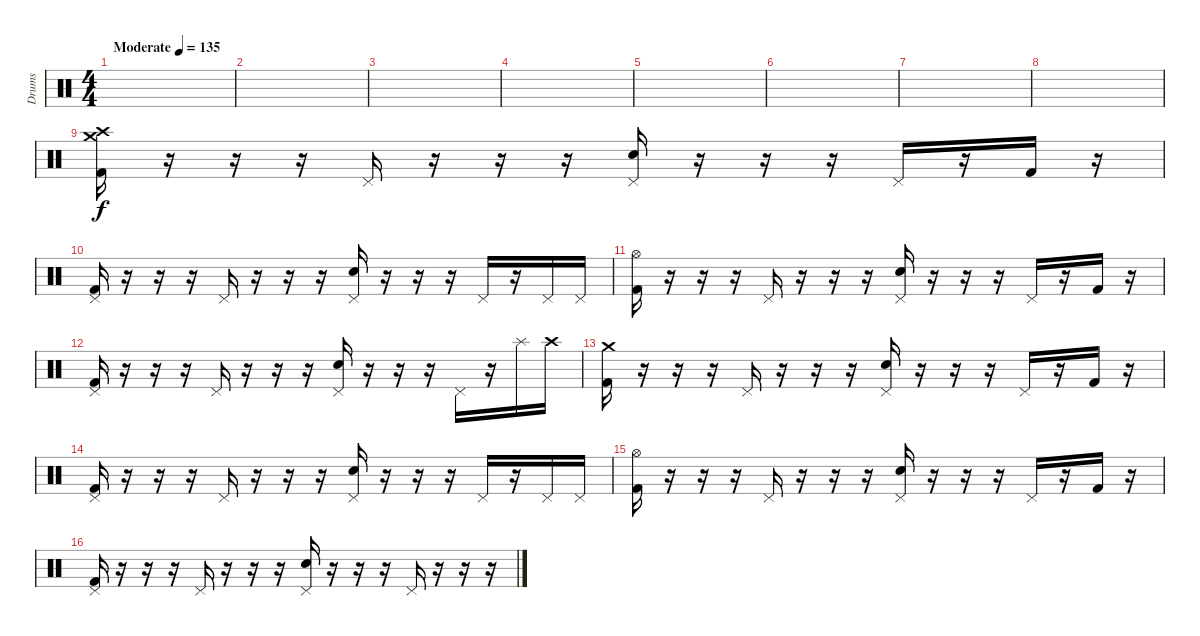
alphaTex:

\track ("Drums" "Drums") {instrument percussion}
\staff {score}
\articulation defaults
\ts (4 4)
\tempo (135 "Moderate")
\clef neutral
\ks c
|
|
|
|
|
|
|
|
("Crash medium (hit)" "Crash high (hit)" "Kick (hit) 2").16 r.16 r.16 r.16 "Pedal Hi-Hat (hit)".16 r.16 r.16 r.16 ("Pedal Hi-Hat (hit)" "Electric Snare (hit)").16 r.16 r.16 r.16 "Pedal Hi-Hat (hit)".16 r.16 "Kick (hit) 2".16 r.16 |
("Pedal Hi-Hat (hit)" "Kick (hit) 2").16 r.16 r.16 r.16 "Pedal Hi-Hat (hit)".16 r.16 r.16 r.16 ("Pedal Hi-Hat (hit)" "Electric Snare (hit)").16 r.16 r.16 r.16 "Pedal Hi-Hat (hit)".16 r.16 "Pedal Hi-Hat (hit)".16 "Pedal Hi-Hat (hit)".16 |
("Hi-Hat (open)" "Kick (hit) 2").16 r.16 r.16 r.16 "Pedal Hi-Hat (hit)".16 r.16 r.16 r.16 ("Pedal Hi-Hat (hit)" "Electric Snare (hit)").16 r.16 r.16 r.16 "Pedal Hi-Hat (hit)".16 r.16 "Kick (hit) 2".16 r.16 |
("Pedal Hi-Hat (hit)" "Kick (hit) 2").16 r.16 r.16 r.16 "Pedal Hi-Hat (hit)".16 r.16 r.16 r.16 ("Pedal Hi-Hat (hit)" "Electric Snare (hit)").16 r.16 r.16 r.16 "Pedal Hi-Hat (hit)".16 r.16 "Splash (hit)".16 "Crash high (hit)".16 |
("Crash medium (hit)" "Kick (hit) 2").16 r.16 r.16 r.16 "Pedal Hi-Hat (hit)".16 r.16 r.16 r.16 ("Pedal Hi-Hat (hit)" "Electric Snare (hit)").16 r.16 r.16 r.16 "Pedal Hi-Hat (hit)".16 r.16 "Kick (hit) 2".16 r.16 |
("Pedal Hi-Hat (hit)" "Kick (hit) 2").16 r.16 r.16 r.16 "Pedal Hi-Hat (hit)".16 r.16 r.16 r.16 ("Pedal Hi-Hat (hit)" "Electric Snare (hit)").16 r.16 r.16 r.16 "Pedal Hi-Hat (hit)".16 r.16 "Pedal Hi-Hat (hit)".16 "Pedal Hi-Hat (hit)".16 |
("Hi-Hat (open)" "Kick (hit) 2").16 r.16 r.16 r.16 "Pedal Hi-Hat (hit)".16 r.16 r.16 r.16 ("Pedal Hi-Hat (hit)" "Electric Snare (hit)").16 r.16 r.16 r.16 "Pedal Hi-Hat (hit)".16 r.16 "Kick (hit) 2".16 r.16 |
("Pedal Hi-Hat (hit)" "Kick (hit) 2").16 r.16 r.16 r.16 "Pedal Hi-Hat (hit)".16 r.16 r.16 r.16 ("Pedal Hi-Hat (hit)" "Electric Snare (hit)").16 r.16 r.16 r.16 "Pedal Hi-Hat (hit)".16 r.16 r.16 r.16
